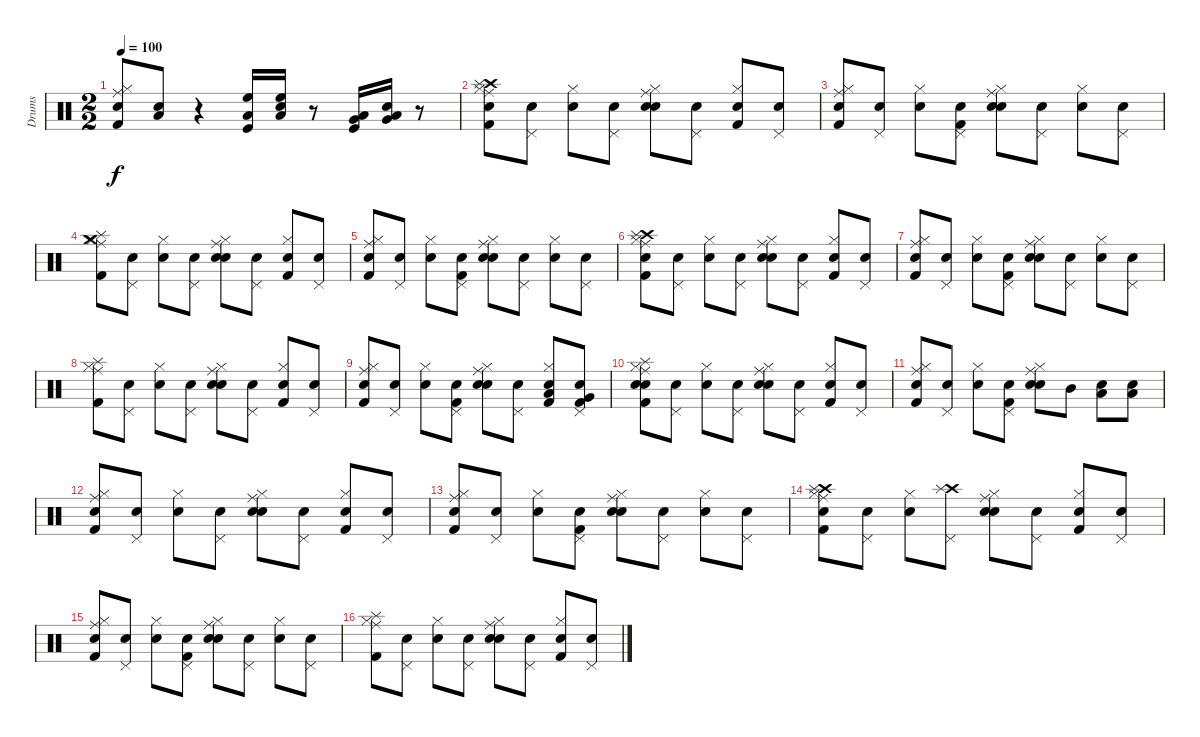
\track ("Drums" "Drums") {instrument percussion}
\staff {score}
\articulation defaults
\ts (2 2)
\tempo 100
\clef neutral
\ks c
("Snare (hit)" "Ride (middle)" "Hi-Hat (closed)" "Kick (hit) 2").8{dy f} ("Snare (hit)" "Low Tom (hit)").8 r.4 ("High Floor Tom (hit)" "Kick (hit)" "Low Tom (hit)").16 ("Snare (hit)" "High Floor Tom (hit)" "Low Tom (hit)").16 r.8 ("Very Low Tom (hit)" "Kick (hit)" "Low Tom (hit)").16 ("Snare (hit)" "Very Low Tom (hit)" "Low Tom (hit)").16 r.8 |
("Ride (middle)" "Hi-Hat (closed)" "Kick (hit) 2" "Snare (hit) 2" "Crash high (hit)" "Splash (hit)").8 ("Snare (hit)" "Pedal Hi-Hat (hit)").8 ("Snare (hit)" "Hi-Hat (closed)").8 ("Snare (hit)" "Pedal Hi-Hat (hit)").8 ("Snare (hit)" "Ride (middle)" "Hi-Hat (closed)" "Snare (hit) 2").8 ("Snare (hit)" "Pedal Hi-Hat (hit)").8 ("Snare (hit)" "Hi-Hat (closed)" "Kick (hit) 2").8 ("Snare (hit)" "Pedal Hi-Hat (hit)").8 |
("Snare (hit)" "Ride (middle)" "Hi-Hat (closed)" "Kick (hit) 2").8 ("Snare (hit)" "Pedal Hi-Hat (hit)").8 ("Snare (hit)" "Hi-Hat (closed)").8 ("Snare (hit)" "Pedal Hi-Hat (hit)" "Kick (hit) 2").8 ("Snare (hit)" "Ride (middle)" "Hi-Hat (closed)" "Snare (hit) 2").8 ("Snare (hit)" "Pedal Hi-Hat (hit)").8 ("Snare (hit)" "Hi-Hat (closed)").8 ("Snare (hit)" "Pedal Hi-Hat (hit)").8 |
("Crash medium (hit)" "Splash (hit)" "Kick (hit) 2" "Ride (middle)" "Hi-Hat (closed)").8 ("Snare (hit)" "Pedal Hi-Hat (hit)").8 ("Snare (hit)" "Hi-Hat (closed)").8 ("Snare (hit)" "Pedal Hi-Hat (hit)").8 ("Snare (hit)" "Ride (middle)" "Hi-Hat (closed)" "Snare (hit) 2").8 ("Snare (hit)" "Pedal Hi-Hat (hit)").8 ("Snare (hit)" "Hi-Hat (closed)" "Kick (hit) 2").8 ("Snare (hit)" "Pedal Hi-Hat (hit)").8 |
("Snare (hit)" "Ride (middle)" "Hi-Hat (closed)" "Kick (hit) 2").8 ("Snare (hit)" "Pedal Hi-Hat (hit)").8 ("Snare (hit)" "Hi-Hat (closed)").8 ("Snare (hit)" "Pedal Hi-Hat (hit)" "Kick (hit) 2").8 ("Snare (hit)" "Ride (middle)" "Hi-Hat (closed)" "Snare (hit) 2").8 ("Snare (hit)" "Pedal Hi-Hat (hit)").8 ("Snare (hit)" "Hi-Hat (closed)").8 ("Snare (hit)" "Pedal Hi-Hat (hit)").8 |
("Snare (hit)" "Hi-Hat (closed)" "Ride (middle)" "Kick (hit) 2" "Crash high (hit)" "Splash (hit)").8 ("Snare (hit)" "Pedal Hi-Hat (hit)").8 ("Snare (hit)" "Hi-Hat (closed)").8 ("Snare (hit)" "Pedal Hi-Hat (hit)").8 ("Snare (hit)" "Ride (middle)" "Hi-Hat (closed)" "Snare (hit) 2").8 ("Snare (hit)" "Pedal Hi-Hat (hit)").8 ("Snare (hit)" "Hi-Hat (closed)" "Kick (hit) 2").8 ("Snare (hit)" "Pedal Hi-Hat (hit)").8 |
("Snare (hit)" "Ride (middle)" "Hi-Hat (closed)" "Kick (hit) 2").8 ("Snare (hit)" "Pedal Hi-Hat (hit)").8 ("Snare (hit)" "Hi-Hat (closed)").8 ("Snare (hit)" "Pedal Hi-Hat (hit)" "Kick (hit) 2").8 ("Snare (hit)" "Ride (middle)" "Hi-Hat (closed)" "Snare (hit) 2").8 ("Snare (hit)" "Pedal Hi-Hat (hit)").8 ("Snare (hit)" "Hi-Hat (closed)").8 ("Snare (hit)" "Pedal Hi-Hat (hit)").8 |
("Splash (hit)" "Kick (hit) 2" "Ride (middle)" "Hi-Hat (closed)").8 ("Snare (hit)" "Pedal Hi-Hat (hit)").8 ("Snare (hit)" "Hi-Hat (closed)").8 ("Snare (hit)" "Pedal Hi-Hat (hit)").8 ("Snare (hit)" "Ride (middle)" "Hi-Hat (closed)" "Snare (hit) 2").8 ("Snare (hit)" "Pedal Hi-Hat (hit)").8 ("Snare (hit)" "Hi-Hat (closed)" "Kick (hit) 2").8 ("Snare (hit)" "Pedal Hi-Hat (hit)").8 |
("Snare (hit)" "Ride (middle)" "Hi-Hat (closed)" "Kick (hit) 2").8 ("Snare (hit)" "Pedal Hi-Hat (hit)").8 ("Snare (hit)" "Hi-Hat (closed)").8 ("Snare (hit)" "Pedal Hi-Hat (hit)" "Kick (hit) 2").8 ("Snare (hit)" "Ride (middle)" "Hi-Hat (closed)" "Snare (hit) 2").8 ("Snare (hit)" "Pedal Hi-Hat (hit)").8 ("Snare (hit)" "Kick (hit) 2" "Low Tom (hit)" "Hi-Hat (closed)").8 ("Snare (hit)" "Very Low Tom (hit)" "Kick (hit) 2" "Pedal Hi-Hat (hit)").8 |
("Snare (hit)" "Ride (middle)" "Hi-Hat (closed)" "Kick (hit) 2" "Snare (hit) 2" "Splash (hit)").8 ("Snare (hit)" "Pedal Hi-Hat (hit)").8 ("Snare (hit)" "Hi-Hat (closed)").8 ("Snare (hit)" "Pedal Hi-Hat (hit)").8 ("Snare (hit)" "Ride (middle)" "Hi-Hat (closed)" "Snare (hit) 2").8 ("Snare (hit)" "Pedal Hi-Hat (hit)").8 ("Snare (hit)" "Hi-Hat (closed)" "Kick (hit) 2").8 ("Snare (hit)" "Pedal Hi-Hat (hit)").8 |
("Snare (hit)" "Ride (middle)" "Hi-Hat (closed)" "Kick (hit) 2").8 ("Snare (hit)" "Pedal Hi-Hat (hit)").8 ("Snare (hit)" "Hi-Hat (closed)").8 ("Snare (hit)" "Pedal Hi-Hat (hit)" "Kick (hit) 2").8 ("Snare (hit)" "Ride (middle)" "Hi-Hat (closed)" "Snare (hit) 2").8 "Mid Tom (hit)".8 ("Snare (hit)" "Low Tom (hit)").8 ("Snare (hit)" "Low Tom (hit)").8 |
("Snare (hit)" "Kick (hit) 2" "Ride (middle)" "Hi-Hat (closed)").8 ("Snare (hit)" "Pedal Hi-Hat (hit)").8 ("Snare (hit)" "Hi-Hat (closed)").8 ("Snare (hit)" "Pedal Hi-Hat (hit)").8 ("Snare (hit)" "Ride (middle)" "Hi-Hat (closed)" "Snare (hit) 2").8 ("Snare (hit)" "Pedal Hi-Hat (hit)").8 ("Snare (hit)" "Hi-Hat (closed)" "Kick (hit) 2").8 ("Snare (hit)" "Pedal Hi-Hat (hit)").8 |
("Snare (hit)" "Ride (middle)" "Hi-Hat (closed)" "Kick (hit) 2").8 ("Snare (hit)" "Pedal Hi-Hat (hit)").8 ("Snare (hit)" "Hi-Hat (closed)").8 ("Snare (hit)" "Pedal Hi-Hat (hit)" "Kick (hit) 2").8 ("Snare (hit)" "Ride (middle)" "Hi-Hat (closed)" "Snare (hit) 2").8 ("Snare (hit)" "Pedal Hi-Hat (hit)").8 ("Snare (hit)" "Hi-Hat (closed)").8 ("Snare (hit)" "Pedal Hi-Hat (hit)").8 |
("Snare (hit)" "Hi-Hat (closed)" "Ride (middle)" "Kick (hit) 2" "Crash high (hit)" "Splash (hit)").8 ("Snare (hit)" "Pedal Hi-Hat (hit)").8 ("Snare (hit)" "Hi-Hat (closed)").8 ("Crash high (hit)" "Splash (hit)" "Pedal Hi-Hat (hit)").8 ("Snare (hit)" "Ride (middle)" "Hi-Hat (closed)" "Snare (hit) 2").8 ("Snare (hit)" "Pedal Hi-Hat (hit)").8 ("Snare (hit)" "Hi-Hat (closed)" "Kick (hit) 2").8 ("Snare (hit)" "Pedal Hi-Hat (hit)").8 |
("Snare (hit)" "Ride (middle)" "Hi-Hat (closed)" "Kick (hit) 2").8 ("Snare (hit)" "Pedal Hi-Hat (hit)").8 ("Snare (hit)" "Hi-Hat (closed)").8 ("Snare (hit)" "Pedal Hi-Hat (hit)" "Kick (hit) 2").8 ("Snare (hit)" "Ride (middle)" "Hi-Hat (closed)" "Snare (hit) 2").8 ("Snare (hit)" "Pedal Hi-Hat (hit)").8 ("Snare (hit)" "Hi-Hat (closed)").8 ("Snare (hit)" "Pedal Hi-Hat (hit)").8 |
("Splash (hit)" "Kick (hit) 2" "Ride (middle)" "Hi-Hat (closed)").8 ("Snare (hit)" "Pedal Hi-Hat (hit)").8 ("Snare (hit)" "Hi-Hat (closed)").8 ("Snare (hit)" "Pedal Hi-Hat (hit)").8 ("Snare (hit)" "Ride (middle)" "Hi-Hat (closed)" "Snare (hit) 2").8 ("Snare (hit)" "Pedal Hi-Hat (hit)").8 ("Snare (hit)" "Hi-Hat (closed)" "Kick (hit) 2").8 ("Snare (hit)" "Pedal Hi-Hat (hit)").8
